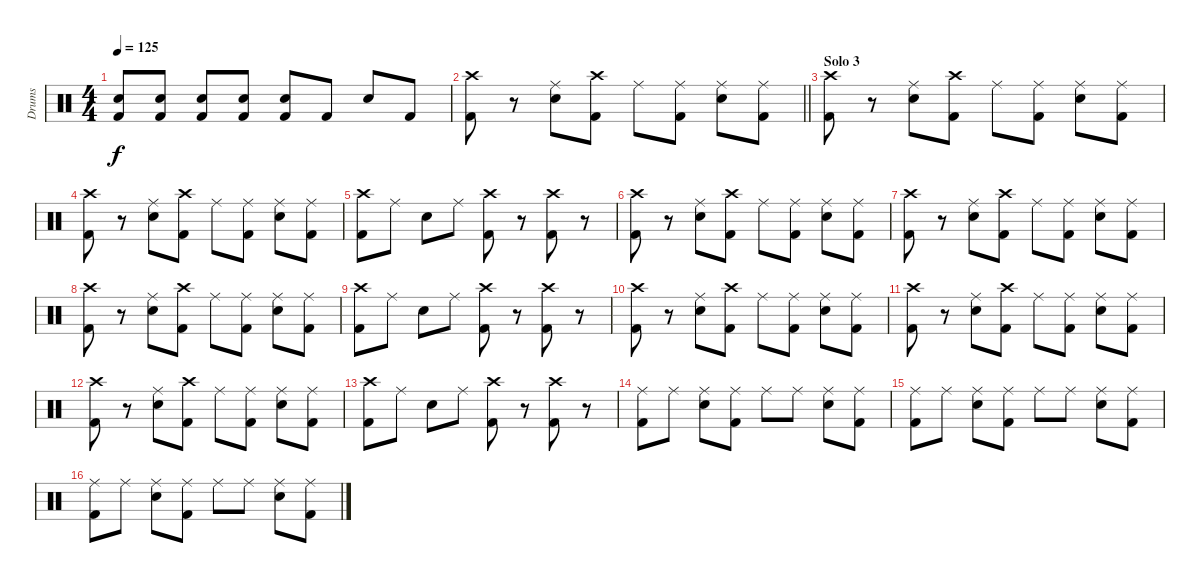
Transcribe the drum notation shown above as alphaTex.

\track ("Drums" "Drums") {instrument percussion}
\staff {score}
\articulation defaults
\ts (4 4)
\tempo 125
\clef neutral
\ks c
("Snare (hit) 2" "Kick (hit) 2").8{dy f} ("Snare (hit) 2" "Kick (hit) 2").8 ("Snare (hit) 2" "Kick (hit) 2").8 ("Snare (hit) 2" "Kick (hit) 2").8 ("Snare (hit) 2" "Kick (hit) 2").8 "Kick (hit) 2".8 "Snare (hit) 2".8 "Kick (hit) 2".8 |
\barLineRight lightlight
("Crash high (hit)" "Kick (hit) 2").8 r.8 ("Ride (middle)" "Snare (hit) 2").8 ("Crash high (hit)" "Kick (hit) 2").8 "Ride (middle)".8 ("Ride (middle)" "Kick (hit) 2").8 ("Ride (middle)" "Snare (hit) 2").8 ("Ride (middle)" "Kick (hit) 2").8 |
\section ("" "Solo 3")
("Crash high (hit)" "Kick (hit) 2").8 r.8 ("Ride (middle)" "Snare (hit) 2").8 ("Crash high (hit)" "Kick (hit) 2").8 "Ride (middle)".8 ("Ride (middle)" "Kick (hit) 2").8 ("Ride (middle)" "Snare (hit) 2").8 ("Ride (middle)" "Kick (hit) 2").8 |
("Crash high (hit)" "Kick (hit) 2").8 r.8 ("Ride (middle)" "Snare (hit) 2").8 ("Crash high (hit)" "Kick (hit) 2").8 "Ride (middle)".8 ("Ride (middle)" "Kick (hit) 2").8 ("Ride (middle)" "Snare (hit) 2").8 ("Ride (middle)" "Kick (hit) 2").8 |
("Crash high (hit)" "Kick (hit) 2").8 "Ride (middle)".8 "Snare (hit) 2".8 "Ride (middle)".8 ("Crash high (hit)" "Kick (hit) 2").8 r.8 ("Crash high (hit)" "Kick (hit) 2").8 r.8 |
("Crash high (hit)" "Kick (hit) 2").8 r.8 ("Ride (middle)" "Snare (hit) 2").8 ("Crash high (hit)" "Kick (hit) 2").8 "Ride (middle)".8 ("Ride (middle)" "Kick (hit) 2").8 ("Ride (middle)" "Snare (hit) 2").8 ("Ride (middle)" "Kick (hit) 2").8 |
("Crash high (hit)" "Kick (hit) 2").8 r.8 ("Ride (middle)" "Snare (hit) 2").8 ("Crash high (hit)" "Kick (hit) 2").8 "Ride (middle)".8 ("Ride (middle)" "Kick (hit) 2").8 ("Ride (middle)" "Snare (hit) 2").8 ("Ride (middle)" "Kick (hit) 2").8 |
("Crash high (hit)" "Kick (hit) 2").8 r.8 ("Ride (middle)" "Snare (hit) 2").8 ("Crash high (hit)" "Kick (hit) 2").8 "Ride (middle)".8 ("Ride (middle)" "Kick (hit) 2").8 ("Ride (middle)" "Snare (hit) 2").8 ("Ride (middle)" "Kick (hit) 2").8 |
("Crash high (hit)" "Kick (hit) 2").8 "Ride (middle)".8 "Snare (hit) 2".8 "Ride (middle)".8 ("Crash high (hit)" "Kick (hit) 2").8 r.8 ("Crash high (hit)" "Kick (hit) 2").8 r.8 |
("Crash high (hit)" "Kick (hit) 2").8 r.8 ("Ride (middle)" "Snare (hit) 2").8 ("Crash high (hit)" "Kick (hit) 2").8 "Ride (middle)".8 ("Ride (middle)" "Kick (hit) 2").8 ("Ride (middle)" "Snare (hit) 2").8 ("Ride (middle)" "Kick (hit) 2").8 |
("Crash high (hit)" "Kick (hit) 2").8 r.8 ("Ride (middle)" "Snare (hit) 2").8 ("Crash high (hit)" "Kick (hit) 2").8 "Ride (middle)".8 ("Ride (middle)" "Kick (hit) 2").8 ("Ride (middle)" "Snare (hit) 2").8 ("Ride (middle)" "Kick (hit) 2").8 |
("Crash high (hit)" "Kick (hit) 2").8 r.8 ("Ride (middle)" "Snare (hit) 2").8 ("Crash high (hit)" "Kick (hit) 2").8 "Ride (middle)".8 ("Ride (middle)" "Kick (hit) 2").8 ("Ride (middle)" "Snare (hit) 2").8 ("Ride (middle)" "Kick (hit) 2").8 |
("Crash high (hit)" "Kick (hit) 2").8 "Ride (middle)".8 "Snare (hit) 2".8 "Ride (middle)".8 ("Crash high (hit)" "Kick (hit) 2").8 r.8 ("Crash high (hit)" "Kick (hit) 2").8 r.8 |
("Ride (middle)" "Kick (hit) 2").8 "Ride (middle)".8 ("Ride (middle)" "Snare (hit) 2").8 ("Ride (middle)" "Kick (hit) 2").8 "Ride (middle)".8 "Ride (middle)".8 ("Ride (middle)" "Snare (hit) 2").8 ("Ride (middle)" "Kick (hit) 2").8 |
("Ride (middle)" "Kick (hit) 2").8 "Ride (middle)".8 ("Ride (middle)" "Snare (hit) 2").8 ("Ride (middle)" "Kick (hit) 2").8 "Ride (middle)".8 "Ride (middle)".8 ("Ride (middle)" "Snare (hit) 2").8 ("Ride (middle)" "Kick (hit) 2").8 |
("Ride (middle)" "Kick (hit) 2").8 "Ride (middle)".8 ("Ride (middle)" "Snare (hit) 2").8 ("Ride (middle)" "Kick (hit) 2").8 "Ride (middle)".8 "Ride (middle)".8 ("Ride (middle)" "Snare (hit) 2").8 ("Ride (middle)" "Kick (hit) 2").8
